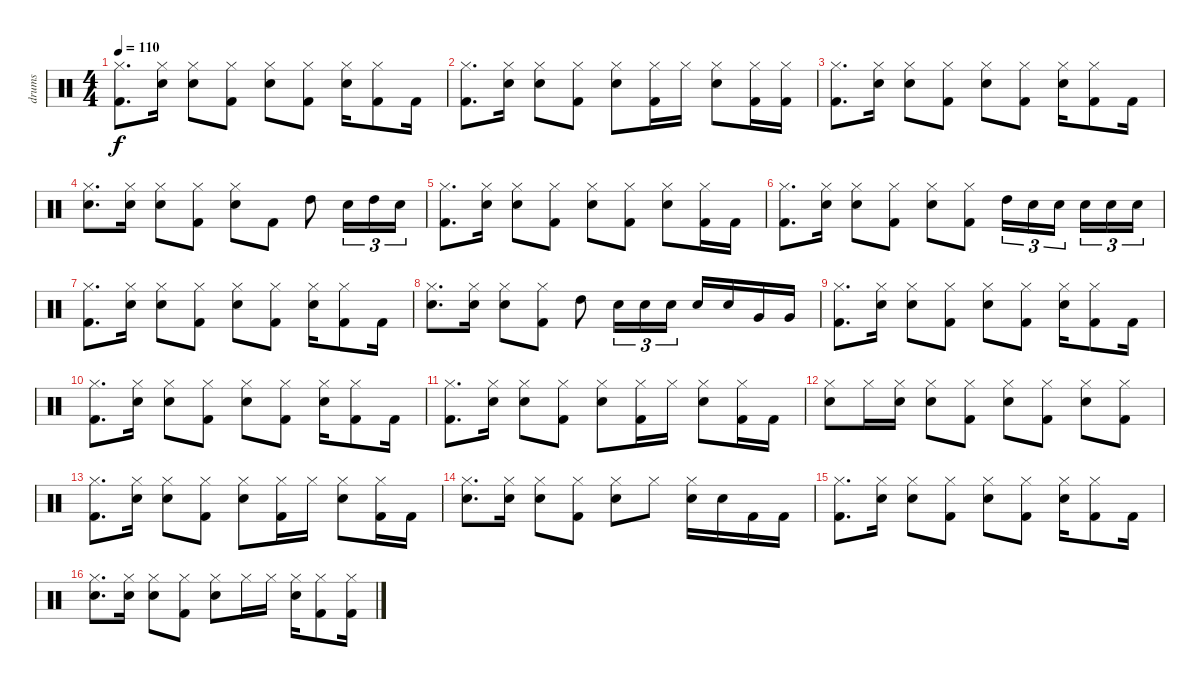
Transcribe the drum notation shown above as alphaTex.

\track ("drums" "drums") {instrument percussion}
\staff {score}
\articulation defaults
\ts (4 4)
\tempo 110
\clef neutral
\ks c
("Kick (hit) 2" "Hi-Hat (closed)").8{d dy f} ("Snare (hit) 2" "Hi-Hat (closed)").16 ("Hi-Hat (closed)" "Snare (hit) 2").8 ("Hi-Hat (closed)" "Kick (hit) 2").8 ("Snare (hit) 2" "Hi-Hat (closed)").8 ("Hi-Hat (closed)" "Kick (hit) 2").8 ("Hi-Hat (closed)" "Snare (hit) 2").16 ("Hi-Hat (closed)" "Kick (hit) 2").8 "Kick (hit) 2".16 |
("Hi-Hat (closed)" "Kick (hit) 2").8{d} ("Snare (hit) 2" "Hi-Hat (closed)").16 ("Snare (hit) 2" "Hi-Hat (closed)").8 ("Kick (hit) 2" "Hi-Hat (closed)").8 ("Hi-Hat (closed)" "Snare (hit) 2").8 ("Hi-Hat (closed)" "Kick (hit) 2").16 "Hi-Hat (closed)".16 ("Hi-Hat (closed)" "Snare (hit) 2").8 ("Hi-Hat (closed)" "Kick (hit) 2").16 ("Hi-Hat (closed)" "Kick (hit) 2").16 |
("Kick (hit) 2" "Hi-Hat (closed)").8{d} ("Snare (hit) 2" "Hi-Hat (closed)").16 ("Hi-Hat (closed)" "Snare (hit) 2").8 ("Hi-Hat (closed)" "Kick (hit) 2").8 ("Snare (hit) 2" "Hi-Hat (closed)").8 ("Hi-Hat (closed)" "Kick (hit) 2").8 ("Hi-Hat (closed)" "Snare (hit) 2").16 ("Hi-Hat (closed)" "Kick (hit) 2").8 "Kick (hit) 2".16 |
("Hi-Hat (closed)" "Snare (hit) 2").8{d} ("Hi-Hat (closed)" "Snare (hit) 2").16 ("Hi-Hat (closed)" "Snare (hit) 2").8 ("Kick (hit) 2" "Hi-Hat (closed)").8 ("Hi-Hat (closed)" "Snare (hit) 2").8 "Kick (hit) 2".8 "High Tom (hit)".8 "Snare (hit) 2".16{tu (3 2)} "High Tom (hit)".16{tu (3 2)} "Snare (hit) 2".16{tu (3 2)} |
("Hi-Hat (closed)" "Kick (hit) 2").8{d} ("Snare (hit) 2" "Hi-Hat (closed)").16 ("Snare (hit) 2" "Hi-Hat (closed)").8 ("Kick (hit) 2" "Hi-Hat (closed)").8 ("Hi-Hat (closed)" "Snare (hit) 2").8 ("Hi-Hat (closed)" "Kick (hit) 2").8 ("Hi-Hat (closed)" "Snare (hit) 2").8 ("Hi-Hat (closed)" "Kick (hit) 2").16 "Kick (hit) 2".16 |
("Hi-Hat (closed)" "Kick (hit) 2").8{d} ("Snare (hit) 2" "Hi-Hat (closed)").16 ("Snare (hit) 2" "Hi-Hat (closed)").8 ("Kick (hit) 2" "Hi-Hat (closed)").8 ("Hi-Hat (closed)" "Snare (hit) 2").8 ("Hi-Hat (closed)" "Kick (hit) 2").8 "High Tom (hit)".16{tu (3 2)} "Snare (hit) 2".16{tu (3 2)} "Snare (hit) 2".16{tu (3 2) beam splitsecondary} "Snare (hit) 2".16{tu (3 2)} "Snare (hit) 2".16{tu (3 2)} "Snare (hit) 2".16{tu (3 2)} |
("Kick (hit) 2" "Hi-Hat (closed)").8{d} ("Snare (hit) 2" "Hi-Hat (closed)").16 ("Hi-Hat (closed)" "Snare (hit) 2").8 ("Hi-Hat (closed)" "Kick (hit) 2").8 ("Snare (hit) 2" "Hi-Hat (closed)").8 ("Hi-Hat (closed)" "Kick (hit) 2").8 ("Hi-Hat (closed)" "Snare (hit) 2").16 ("Hi-Hat (closed)" "Kick (hit) 2").8 "Kick (hit) 2".16 |
("Hi-Hat (closed)" "Snare (hit) 2").8{d} ("Hi-Hat (closed)" "Snare (hit) 2").16 ("Hi-Hat (closed)" "Snare (hit) 2").8 ("Hi-Hat (closed)" "Kick (hit) 2").8 "High Tom (hit)".8 "Snare (hit) 2".16{tu (3 2)} "Snare (hit) 2".16{tu (3 2)} "Snare (hit) 2".16{tu (3 2)} "Snare (hit) 2".16 "Snare (hit) 2".16 "Very Low Tom (hit)".16 "Very Low Tom (hit)".16 |
("Kick (hit) 2" "Hi-Hat (closed)").8{d} ("Snare (hit) 2" "Hi-Hat (closed)").16 ("Hi-Hat (closed)" "Snare (hit) 2").8 ("Hi-Hat (closed)" "Kick (hit) 2").8 ("Snare (hit) 2" "Hi-Hat (closed)").8 ("Hi-Hat (closed)" "Kick (hit) 2").8 ("Hi-Hat (closed)" "Snare (hit) 2").16 ("Hi-Hat (closed)" "Kick (hit) 2").8 "Kick (hit) 2".16 |
("Kick (hit) 2" "Hi-Hat (closed)").8{d} ("Snare (hit) 2" "Hi-Hat (closed)").16 ("Hi-Hat (closed)" "Snare (hit) 2").8 ("Hi-Hat (closed)" "Kick (hit) 2").8 ("Snare (hit) 2" "Hi-Hat (closed)").8 ("Hi-Hat (closed)" "Kick (hit) 2").8 ("Hi-Hat (closed)" "Snare (hit) 2").16 ("Hi-Hat (closed)" "Kick (hit) 2").8 "Kick (hit) 2".16 |
("Hi-Hat (closed)" "Kick (hit) 2").8{d} ("Snare (hit) 2" "Hi-Hat (closed)").16 ("Snare (hit) 2" "Hi-Hat (closed)").8 ("Kick (hit) 2" "Hi-Hat (closed)").8 ("Hi-Hat (closed)" "Snare (hit) 2").8 ("Hi-Hat (closed)" "Kick (hit) 2").16 "Hi-Hat (closed)".16 ("Hi-Hat (closed)" "Snare (hit) 2").8 ("Hi-Hat (closed)" "Kick (hit) 2").16 "Kick (hit) 2".16 |
("Hi-Hat (closed)" "Snare (hit) 2").8 "Hi-Hat (closed)".16 ("Hi-Hat (closed)" "Snare (hit) 2").16 ("Hi-Hat (closed)" "Snare (hit) 2").8 ("Hi-Hat (closed)" "Kick (hit) 2").8 ("Snare (hit) 2" "Hi-Hat (closed)").8 ("Hi-Hat (closed)" "Kick (hit) 2").8 ("Hi-Hat (closed)" "Snare (hit) 2").8 ("Hi-Hat (closed)" "Kick (hit) 2").8 |
("Hi-Hat (closed)" "Kick (hit) 2").8{d} ("Snare (hit) 2" "Hi-Hat (closed)").16 ("Snare (hit) 2" "Hi-Hat (closed)").8 ("Kick (hit) 2" "Hi-Hat (closed)").8 ("Hi-Hat (closed)" "Snare (hit) 2").8 ("Hi-Hat (closed)" "Kick (hit) 2").16 "Hi-Hat (closed)".16 ("Hi-Hat (closed)" "Snare (hit) 2").8 ("Hi-Hat (closed)" "Kick (hit) 2").16 "Kick (hit) 2".16 |
("Hi-Hat (closed)" "Snare (hit) 2").8{d} ("Hi-Hat (closed)" "Snare (hit) 2").16 ("Hi-Hat (closed)" "Snare (hit) 2").8 ("Hi-Hat (closed)" "Kick (hit) 2").8 ("Snare (hit) 2" "Hi-Hat (closed)").8 "Hi-Hat (closed)".8 ("Hi-Hat (closed)" "Snare (hit) 2").16 "Snare (hit) 2".16 "Kick (hit) 2".16 "Kick (hit) 2".16 |
("Kick (hit) 2" "Hi-Hat (closed)").8{d} ("Snare (hit) 2" "Hi-Hat (closed)").16 ("Hi-Hat (closed)" "Snare (hit) 2").8 ("Hi-Hat (closed)" "Kick (hit) 2").8 ("Snare (hit) 2" "Hi-Hat (closed)").8 ("Hi-Hat (closed)" "Kick (hit) 2").8 ("Hi-Hat (closed)" "Snare (hit) 2").16 ("Hi-Hat (closed)" "Kick (hit) 2").8 "Kick (hit) 2".16 |
("Hi-Hat (closed)" "Snare (hit) 2").8{d} ("Hi-Hat (closed)" "Snare (hit) 2").16 ("Hi-Hat (closed)" "Snare (hit) 2").8 ("Hi-Hat (closed)" "Kick (hit) 2").8 ("Snare (hit) 2" "Hi-Hat (closed)").8 "Hi-Hat (closed)".16 "Hi-Hat (closed)".16 ("Hi-Hat (closed)" "Snare (hit) 2").16 ("Hi-Hat (closed)" "Kick (hit) 2").8 ("Hi-Hat (closed)" "Kick (hit) 2").16
